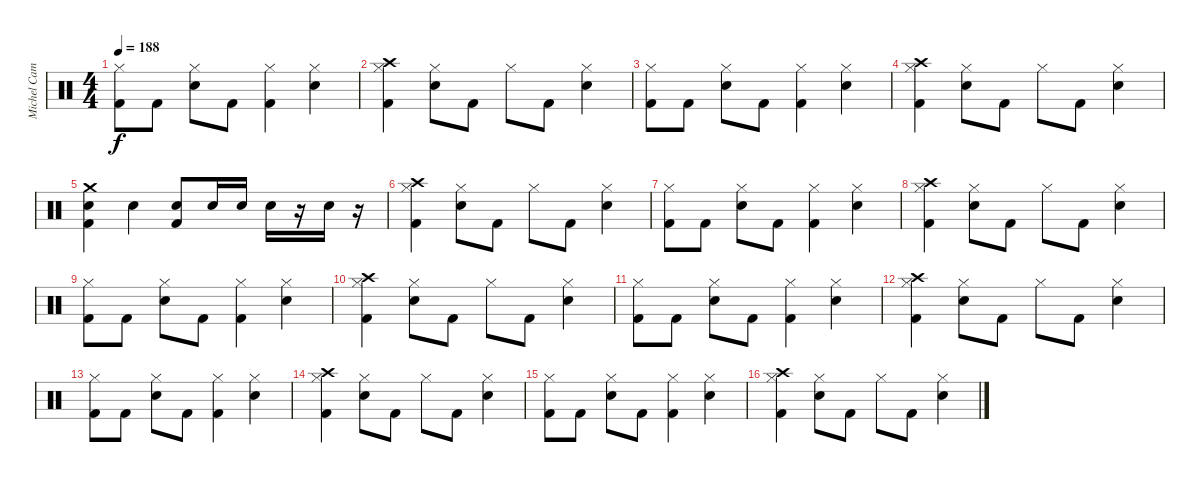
\track ("Michel Camiade" "Michel Cam") {instrument percussion}
\staff {score}
\articulation defaults
\ts (4 4)
\tempo 188
\clef neutral
\ks c
("Hi-Hat (closed)" "Kick (hit) 2").8{dy f} "Kick (hit) 2".8 ("Hi-Hat (closed)" "Snare (hit) 2").8 "Kick (hit) 2".8 ("Hi-Hat (closed)" "Kick (hit) 2").4 ("Hi-Hat (closed)" "Snare (hit) 2").4 |
("Crash high (hit)" "Hi-Hat (closed)" "Kick (hit) 2").4 ("Hi-Hat (closed)" "Snare (hit) 2").8 "Kick (hit) 2".8 "Hi-Hat (closed)".8 "Kick (hit) 2".8 ("Hi-Hat (closed)" "Snare (hit) 2").4 |
("Hi-Hat (closed)" "Kick (hit) 2").8 "Kick (hit) 2".8 ("Hi-Hat (closed)" "Snare (hit) 2").8 "Kick (hit) 2".8 ("Hi-Hat (closed)" "Kick (hit) 2").4 ("Hi-Hat (closed)" "Snare (hit) 2").4 |
("Crash high (hit)" "Hi-Hat (closed)" "Kick (hit) 2").4 ("Hi-Hat (closed)" "Snare (hit) 2").8 "Kick (hit) 2".8 "Hi-Hat (closed)".8 "Kick (hit) 2".8 ("Hi-Hat (closed)" "Snare (hit) 2").4 |
("Crash medium (hit)" "Snare (hit) 2" "Kick (hit) 2").4 "Snare (hit) 2".4 ("Snare (hit) 2" "Kick (hit) 2").8 "Snare (hit) 2".16 "Snare (hit) 2".16 "Snare (hit) 2".16 r.16 "Snare (hit) 2".16 r.16 |
("Crash high (hit)" "Hi-Hat (closed)" "Kick (hit) 2").4 ("Hi-Hat (closed)" "Snare (hit) 2").8 "Kick (hit) 2".8 "Hi-Hat (closed)".8 "Kick (hit) 2".8 ("Hi-Hat (closed)" "Snare (hit) 2").4 |
("Hi-Hat (closed)" "Kick (hit) 2").8 "Kick (hit) 2".8 ("Hi-Hat (closed)" "Snare (hit) 2").8 "Kick (hit) 2".8 ("Hi-Hat (closed)" "Kick (hit) 2").4 ("Hi-Hat (closed)" "Snare (hit) 2").4 |
("Crash high (hit)" "Hi-Hat (closed)" "Kick (hit) 2").4 ("Hi-Hat (closed)" "Snare (hit) 2").8 "Kick (hit) 2".8 "Hi-Hat (closed)".8 "Kick (hit) 2".8 ("Hi-Hat (closed)" "Snare (hit) 2").4 |
("Hi-Hat (closed)" "Kick (hit) 2").8 "Kick (hit) 2".8 ("Hi-Hat (closed)" "Snare (hit) 2").8 "Kick (hit) 2".8 ("Hi-Hat (closed)" "Kick (hit) 2").4 ("Hi-Hat (closed)" "Snare (hit) 2").4 |
("Crash high (hit)" "Hi-Hat (closed)" "Kick (hit) 2").4 ("Hi-Hat (closed)" "Snare (hit) 2").8 "Kick (hit) 2".8 "Hi-Hat (closed)".8 "Kick (hit) 2".8 ("Hi-Hat (closed)" "Snare (hit) 2").4 |
("Hi-Hat (closed)" "Kick (hit) 2").8 "Kick (hit) 2".8 ("Hi-Hat (closed)" "Snare (hit) 2").8 "Kick (hit) 2".8 ("Hi-Hat (closed)" "Kick (hit) 2").4 ("Hi-Hat (closed)" "Snare (hit) 2").4 |
("Crash high (hit)" "Hi-Hat (closed)" "Kick (hit) 2").4 ("Hi-Hat (closed)" "Snare (hit) 2").8 "Kick (hit) 2".8 "Hi-Hat (closed)".8 "Kick (hit) 2".8 ("Hi-Hat (closed)" "Snare (hit) 2").4 |
("Hi-Hat (closed)" "Kick (hit) 2").8 "Kick (hit) 2".8 ("Hi-Hat (closed)" "Snare (hit) 2").8 "Kick (hit) 2".8 ("Hi-Hat (closed)" "Kick (hit) 2").4 ("Hi-Hat (closed)" "Snare (hit) 2").4 |
("Crash high (hit)" "Hi-Hat (closed)" "Kick (hit) 2").4 ("Hi-Hat (closed)" "Snare (hit) 2").8 "Kick (hit) 2".8 "Hi-Hat (closed)".8 "Kick (hit) 2".8 ("Hi-Hat (closed)" "Snare (hit) 2").4 |
("Hi-Hat (closed)" "Kick (hit) 2").8 "Kick (hit) 2".8 ("Hi-Hat (closed)" "Snare (hit) 2").8 "Kick (hit) 2".8 ("Hi-Hat (closed)" "Kick (hit) 2").4 ("Hi-Hat (closed)" "Snare (hit) 2").4 |
("Crash high (hit)" "Hi-Hat (closed)" "Kick (hit) 2").4 ("Hi-Hat (closed)" "Snare (hit) 2").8 "Kick (hit) 2".8 "Hi-Hat (closed)".8 "Kick (hit) 2".8 ("Hi-Hat (closed)" "Snare (hit) 2").4
